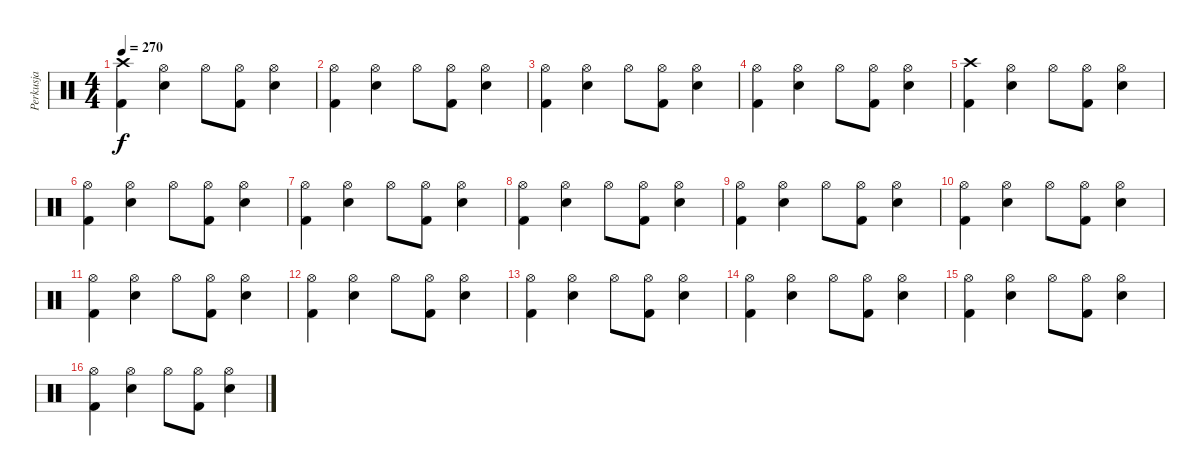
\track ("Perkusja" "Perkusja") {instrument percussion}
\staff {score}
\articulation defaults
\ts (4 4)
\tempo 270
\clef neutral
\ks c
("Crash high (hit)" "Kick (hit) 2").4{dy f} ("Hi-Hat (open)" "Electric Snare (hit)").4 "Hi-Hat (open)".8 ("Hi-Hat (open)" "Kick (hit) 2").8 ("Hi-Hat (open)" "Electric Snare (hit)").4 |
("Hi-Hat (open)" "Kick (hit) 2").4 ("Hi-Hat (open)" "Electric Snare (hit)").4 "Hi-Hat (open)".8 ("Hi-Hat (open)" "Kick (hit) 2").8 ("Hi-Hat (open)" "Electric Snare (hit)").4 |
("Hi-Hat (open)" "Kick (hit) 2").4 ("Hi-Hat (open)" "Electric Snare (hit)").4 "Hi-Hat (open)".8 ("Hi-Hat (open)" "Kick (hit) 2").8 ("Hi-Hat (open)" "Electric Snare (hit)").4 |
("Hi-Hat (open)" "Kick (hit) 2").4 ("Hi-Hat (open)" "Electric Snare (hit)").4 "Hi-Hat (open)".8 ("Hi-Hat (open)" "Kick (hit) 2").8 ("Hi-Hat (open)" "Electric Snare (hit)").4 |
("Crash high (hit)" "Kick (hit) 2").4 ("Hi-Hat (open)" "Electric Snare (hit)").4 "Hi-Hat (open)".8 ("Hi-Hat (open)" "Kick (hit) 2").8 ("Hi-Hat (open)" "Electric Snare (hit)").4 |
("Hi-Hat (open)" "Kick (hit) 2").4 ("Hi-Hat (open)" "Electric Snare (hit)").4 "Hi-Hat (open)".8 ("Hi-Hat (open)" "Kick (hit) 2").8 ("Hi-Hat (open)" "Electric Snare (hit)").4 |
("Hi-Hat (open)" "Kick (hit) 2").4 ("Hi-Hat (open)" "Electric Snare (hit)").4 "Hi-Hat (open)".8 ("Hi-Hat (open)" "Kick (hit) 2").8 ("Hi-Hat (open)" "Electric Snare (hit)").4 |
("Hi-Hat (open)" "Kick (hit) 2").4 ("Hi-Hat (open)" "Electric Snare (hit)").4 "Hi-Hat (open)".8 ("Hi-Hat (open)" "Kick (hit) 2").8 ("Hi-Hat (open)" "Electric Snare (hit)").4 |
("Hi-Hat (open)" "Kick (hit) 2").4 ("Hi-Hat (open)" "Electric Snare (hit)").4 "Hi-Hat (open)".8 ("Hi-Hat (open)" "Kick (hit) 2").8 ("Hi-Hat (open)" "Electric Snare (hit)").4 |
("Hi-Hat (open)" "Kick (hit) 2").4 ("Hi-Hat (open)" "Electric Snare (hit)").4 "Hi-Hat (open)".8 ("Hi-Hat (open)" "Kick (hit) 2").8 ("Hi-Hat (open)" "Electric Snare (hit)").4 |
("Hi-Hat (open)" "Kick (hit) 2").4 ("Hi-Hat (open)" "Electric Snare (hit)").4 "Hi-Hat (open)".8 ("Hi-Hat (open)" "Kick (hit) 2").8 ("Hi-Hat (open)" "Electric Snare (hit)").4 |
("Hi-Hat (open)" "Kick (hit) 2").4 ("Hi-Hat (open)" "Electric Snare (hit)").4 "Hi-Hat (open)".8 ("Hi-Hat (open)" "Kick (hit) 2").8 ("Hi-Hat (open)" "Electric Snare (hit)").4 |
("Hi-Hat (open)" "Kick (hit) 2").4 ("Hi-Hat (open)" "Electric Snare (hit)").4 "Hi-Hat (open)".8 ("Hi-Hat (open)" "Kick (hit) 2").8 ("Hi-Hat (open)" "Electric Snare (hit)").4 |
("Hi-Hat (open)" "Kick (hit) 2").4 ("Hi-Hat (open)" "Electric Snare (hit)").4 "Hi-Hat (open)".8 ("Hi-Hat (open)" "Kick (hit) 2").8 ("Hi-Hat (open)" "Electric Snare (hit)").4 |
("Hi-Hat (open)" "Kick (hit) 2").4 ("Hi-Hat (open)" "Electric Snare (hit)").4 "Hi-Hat (open)".8 ("Hi-Hat (open)" "Kick (hit) 2").8 ("Hi-Hat (open)" "Electric Snare (hit)").4 |
("Hi-Hat (open)" "Kick (hit) 2").4 ("Hi-Hat (open)" "Electric Snare (hit)").4 "Hi-Hat (open)".8 ("Hi-Hat (open)" "Kick (hit) 2").8 ("Hi-Hat (open)" "Electric Snare (hit)").4
